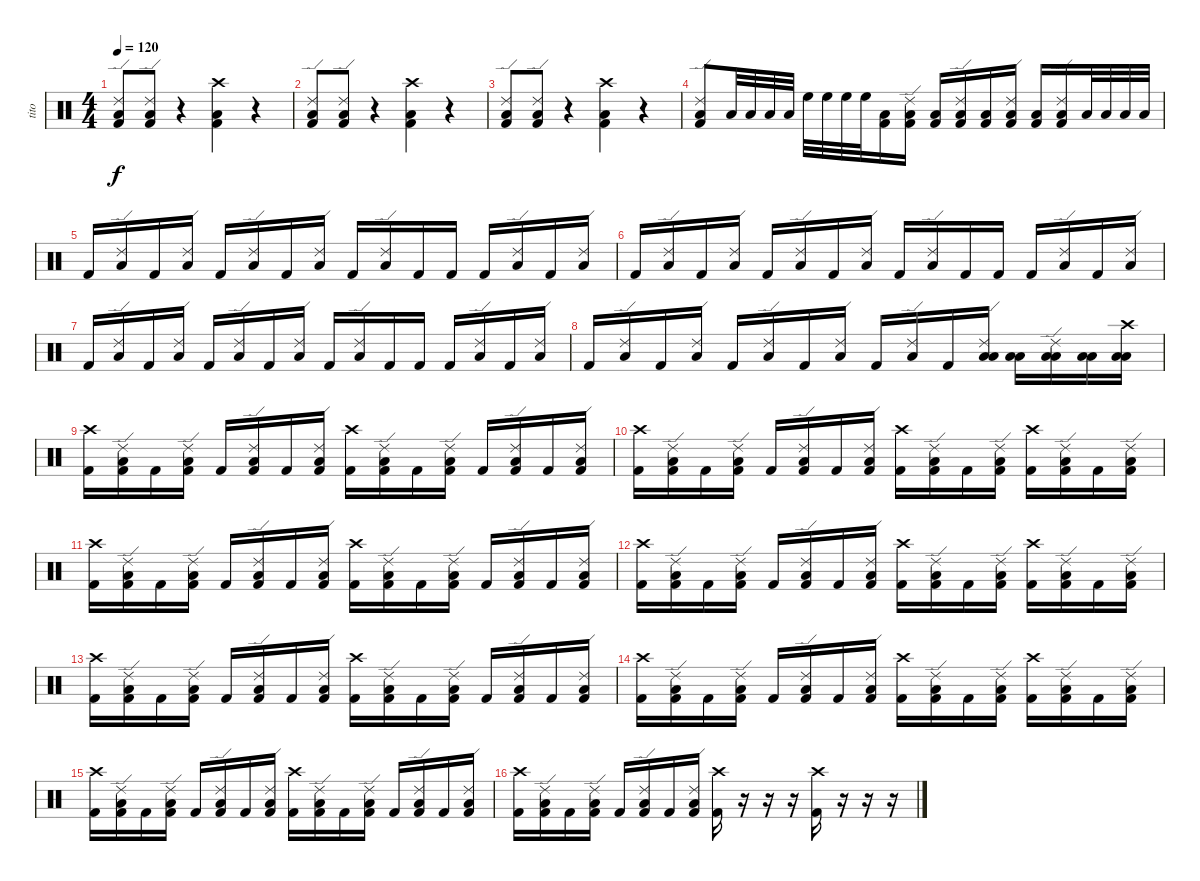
\track ("tito" "tito") {instrument percussion}
\staff {score}
\articulation defaults
\ts (4 4)
\tempo 120
\clef neutral
\ks c
("Ride (edge) 2" "Low Tom (hit)" "Kick (hit) 2").8{dy f} ("Ride (edge) 2" "Low Tom (hit)" "Kick (hit) 2").8 r.4 ("Crash high (hit)" "Low Tom (hit)" "Kick (hit) 2").4 r.4 |
("Ride (edge) 2" "Low Tom (hit)" "Kick (hit) 2").8 ("Ride (edge) 2" "Low Tom (hit)" "Kick (hit) 2").8 r.4 ("Crash high (hit)" "Low Tom (hit)" "Kick (hit) 2").4 r.4 |
("Ride (edge) 2" "Low Tom (hit)" "Kick (hit) 2").8 ("Ride (edge) 2" "Low Tom (hit)" "Kick (hit) 2").8 r.4 ("Crash high (hit)" "Low Tom (hit)" "Kick (hit) 2").4 r.4 |
("Ride (edge) 2" "Low Tom (hit)" "Kick (hit) 2").8 "Low Tom (hit)".32 "Low Tom (hit)".32 "Low Tom (hit)".32 "Low Tom (hit)".32 "High Floor Tom (hit)".32 "High Floor Tom (hit)".32 "High Floor Tom (hit)".32 "High Floor Tom (hit)".32 ("Low Tom (hit)" "Kick (hit) 2").16 ("Ride (edge) 2" "Low Tom (hit)" "Kick (hit) 2").16 ("Low Tom (hit)" "Kick (hit) 2").16 ("Ride (edge) 2" "Low Tom (hit)" "Kick (hit) 2").16 ("Low Tom (hit)" "Kick (hit) 2").16 ("Ride (edge) 2" "Low Tom (hit)" "Kick (hit) 2").16 ("Low Tom (hit)" "Kick (hit) 2").16 ("Ride (edge) 2" "Low Tom (hit)" "Kick (hit) 2").16 "Low Floor Tom (hit)".32 "Low Floor Tom (hit)".32 "Low Floor Tom (hit)".32 "Low Floor Tom (hit)".32 |
"Kick (hit) 2".16 ("Ride (edge) 2" "Low Tom (hit)").16 "Kick (hit) 2".16 ("Ride (edge) 2" "Low Tom (hit)").16 "Kick (hit) 2".16 ("Ride (edge) 2" "Low Tom (hit)").16 "Kick (hit) 2".16 ("Ride (edge) 2" "Low Tom (hit)").16 "Kick (hit) 2".16 ("Ride (edge) 2" "Low Tom (hit)").16 "Kick (hit) 2".16 "Kick (hit) 2".16 "Kick (hit) 2".16 ("Ride (edge) 2" "Low Tom (hit)").16 "Kick (hit) 2".16 ("Ride (edge) 2" "Low Tom (hit)").16 |
"Kick (hit) 2".16 ("Ride (edge) 2" "Low Tom (hit)").16 "Kick (hit) 2".16 ("Ride (edge) 2" "Low Tom (hit)").16 "Kick (hit) 2".16 ("Ride (edge) 2" "Low Tom (hit)").16 "Kick (hit) 2".16 ("Ride (edge) 2" "Low Tom (hit)").16 "Kick (hit) 2".16 ("Ride (edge) 2" "Low Tom (hit)").16 "Kick (hit) 2".16 "Kick (hit) 2".16 "Kick (hit) 2".16 ("Ride (edge) 2" "Low Tom (hit)").16 "Kick (hit) 2".16 ("Ride (edge) 2" "Low Tom (hit)").16 |
"Kick (hit) 2".16 ("Ride (edge) 2" "Low Tom (hit)").16 "Kick (hit) 2".16 ("Ride (edge) 2" "Low Tom (hit)").16 "Kick (hit) 2".16 ("Ride (edge) 2" "Low Tom (hit)").16 "Kick (hit) 2".16 ("Ride (edge) 2" "Low Tom (hit)").16 "Kick (hit) 2".16 ("Ride (edge) 2" "Low Tom (hit)").16 "Kick (hit) 2".16 "Kick (hit) 2".16 "Kick (hit) 2".16 ("Ride (edge) 2" "Low Tom (hit)").16 "Kick (hit) 2".16 ("Ride (edge) 2" "Low Tom (hit)").16 |
"Kick (hit) 2".16 ("Ride (edge) 2" "Low Tom (hit)").16 "Kick (hit) 2".16 ("Ride (edge) 2" "Low Tom (hit)").16 "Kick (hit) 2".16 ("Ride (edge) 2" "Low Tom (hit)").16 "Kick (hit) 2".16 ("Ride (edge) 2" "Low Tom (hit)").16 "Kick (hit) 2".16 ("Ride (edge) 2" "Low Tom (hit)").16 "Kick (hit) 2".16 ("Low Tom (hit)" "Ride (edge) 2" "Low Floor Tom (hit)").16 ("Low Tom (hit)" "Low Floor Tom (hit)").16 ("Low Tom (hit)" "Ride (edge) 2" "Low Floor Tom (hit)").16 ("Low Tom (hit)" "Low Floor Tom (hit)").16 ("Low Tom (hit)" "Crash high (hit)" "Low Floor Tom (hit)").16 |
("Crash high (hit)" "Kick (hit) 2").16 ("Ride (edge) 2" "Low Tom (hit)" "Kick (hit) 2").16 "Kick (hit) 2".16 ("Ride (edge) 2" "Low Tom (hit)" "Kick (hit) 2").16 "Kick (hit) 2".16 ("Ride (edge) 2" "Low Tom (hit)" "Kick (hit) 2").16 "Kick (hit) 2".16 ("Ride (edge) 2" "Low Tom (hit)" "Kick (hit) 2").16 ("Crash high (hit)" "Kick (hit) 2").16 ("Ride (edge) 2" "Low Tom (hit)" "Kick (hit) 2").16 "Kick (hit) 2".16 ("Ride (edge) 2" "Low Tom (hit)" "Kick (hit) 2").16 "Kick (hit) 2".16 ("Ride (edge) 2" "Low Tom (hit)" "Kick (hit) 2").16 "Kick (hit) 2".16 ("Ride (edge) 2" "Low Tom (hit)" "Kick (hit) 2").16 |
("Crash high (hit)" "Kick (hit) 2").16 ("Ride (edge) 2" "Low Tom (hit)" "Kick (hit) 2").16 "Kick (hit) 2".16 ("Ride (edge) 2" "Low Tom (hit)" "Kick (hit) 2").16 "Kick (hit) 2".16 ("Ride (edge) 2" "Low Tom (hit)" "Kick (hit) 2").16 "Kick (hit) 2".16 ("Ride (edge) 2" "Low Tom (hit)" "Kick (hit) 2").16 ("Crash high (hit)" "Kick (hit) 2").16 ("Ride (edge) 2" "Low Tom (hit)" "Kick (hit) 2").16 "Kick (hit) 2".16 ("Ride (edge) 2" "Low Tom (hit)" "Kick (hit) 2").16 ("Crash high (hit)" "Kick (hit) 2").16 ("Ride (edge) 2" "Low Tom (hit)" "Kick (hit) 2").16 "Kick (hit) 2".16 ("Ride (edge) 2" "Low Tom (hit)" "Kick (hit) 2").16 |
("Crash high (hit)" "Kick (hit) 2").16 ("Ride (edge) 2" "Low Tom (hit)" "Kick (hit) 2").16 "Kick (hit) 2".16 ("Ride (edge) 2" "Low Tom (hit)" "Kick (hit) 2").16 "Kick (hit) 2".16 ("Ride (edge) 2" "Low Tom (hit)" "Kick (hit) 2").16 "Kick (hit) 2".16 ("Ride (edge) 2" "Low Tom (hit)" "Kick (hit) 2").16 ("Crash high (hit)" "Kick (hit) 2").16 ("Ride (edge) 2" "Low Tom (hit)" "Kick (hit) 2").16 "Kick (hit) 2".16 ("Ride (edge) 2" "Low Tom (hit)" "Kick (hit) 2").16 "Kick (hit) 2".16 ("Ride (edge) 2" "Low Tom (hit)" "Kick (hit) 2").16 "Kick (hit) 2".16 ("Ride (edge) 2" "Low Tom (hit)" "Kick (hit) 2").16 |
("Crash high (hit)" "Kick (hit) 2").16 ("Ride (edge) 2" "Low Tom (hit)" "Kick (hit) 2").16 "Kick (hit) 2".16 ("Ride (edge) 2" "Low Tom (hit)" "Kick (hit) 2").16 "Kick (hit) 2".16 ("Ride (edge) 2" "Low Tom (hit)" "Kick (hit) 2").16 "Kick (hit) 2".16 ("Ride (edge) 2" "Low Tom (hit)" "Kick (hit) 2").16 ("Crash high (hit)" "Kick (hit) 2").16 ("Ride (edge) 2" "Low Tom (hit)" "Kick (hit) 2").16 "Kick (hit) 2".16 ("Ride (edge) 2" "Low Tom (hit)" "Kick (hit) 2").16 ("Crash high (hit)" "Kick (hit) 2").16 ("Ride (edge) 2" "Low Tom (hit)" "Kick (hit) 2").16 "Kick (hit) 2".16 ("Ride (edge) 2" "Low Tom (hit)" "Kick (hit) 2").16 |
("Crash high (hit)" "Kick (hit) 2").16 ("Ride (edge) 2" "Low Tom (hit)" "Kick (hit) 2").16 "Kick (hit) 2".16 ("Ride (edge) 2" "Low Tom (hit)" "Kick (hit) 2").16 "Kick (hit) 2".16 ("Ride (edge) 2" "Low Tom (hit)" "Kick (hit) 2").16 "Kick (hit) 2".16 ("Ride (edge) 2" "Low Tom (hit)" "Kick (hit) 2").16 ("Crash high (hit)" "Kick (hit) 2").16 ("Ride (edge) 2" "Low Tom (hit)" "Kick (hit) 2").16 "Kick (hit) 2".16 ("Ride (edge) 2" "Low Tom (hit)" "Kick (hit) 2").16 "Kick (hit) 2".16 ("Ride (edge) 2" "Low Tom (hit)" "Kick (hit) 2").16 "Kick (hit) 2".16 ("Ride (edge) 2" "Low Tom (hit)" "Kick (hit) 2").16 |
("Crash high (hit)" "Kick (hit) 2").16 ("Ride (edge) 2" "Low Tom (hit)" "Kick (hit) 2").16 "Kick (hit) 2".16 ("Ride (edge) 2" "Low Tom (hit)" "Kick (hit) 2").16 "Kick (hit) 2".16 ("Ride (edge) 2" "Low Tom (hit)" "Kick (hit) 2").16 "Kick (hit) 2".16 ("Ride (edge) 2" "Low Tom (hit)" "Kick (hit) 2").16 ("Crash high (hit)" "Kick (hit) 2").16 ("Ride (edge) 2" "Low Tom (hit)" "Kick (hit) 2").16 "Kick (hit) 2".16 ("Ride (edge) 2" "Low Tom (hit)" "Kick (hit) 2").16 ("Crash high (hit)" "Kick (hit) 2").16 ("Ride (edge) 2" "Low Tom (hit)" "Kick (hit) 2").16 "Kick (hit) 2".16 ("Ride (edge) 2" "Low Tom (hit)" "Kick (hit) 2").16 |
("Crash high (hit)" "Kick (hit) 2").16 ("Ride (edge) 2" "Low Tom (hit)" "Kick (hit) 2").16 "Kick (hit) 2".16 ("Ride (edge) 2" "Low Tom (hit)" "Kick (hit) 2").16 "Kick (hit) 2".16 ("Ride (edge) 2" "Low Tom (hit)" "Kick (hit) 2").16 "Kick (hit) 2".16 ("Ride (edge) 2" "Low Tom (hit)" "Kick (hit) 2").16 ("Crash high (hit)" "Kick (hit) 2").16 ("Ride (edge) 2" "Low Tom (hit)" "Kick (hit) 2").16 "Kick (hit) 2".16 ("Ride (edge) 2" "Low Tom (hit)" "Kick (hit) 2").16 "Kick (hit) 2".16 ("Ride (edge) 2" "Low Tom (hit)" "Kick (hit) 2").16 "Kick (hit) 2".16 ("Ride (edge) 2" "Low Tom (hit)" "Kick (hit) 2").16 |
("Crash high (hit)" "Kick (hit) 2").16 ("Ride (edge) 2" "Low Tom (hit)" "Kick (hit) 2").16 "Kick (hit) 2".16 ("Ride (edge) 2" "Low Tom (hit)" "Kick (hit) 2").16 "Kick (hit) 2".16 ("Ride (edge) 2" "Low Tom (hit)" "Kick (hit) 2").16 "Kick (hit) 2".16 ("Ride (edge) 2" "Low Tom (hit)" "Kick (hit) 2").16 ("Crash high (hit)" "Kick (hit) 2").16 r.16 r.16 r.16 ("Crash high (hit)" "Kick (hit) 2").16 r.16 r.16 r.16
